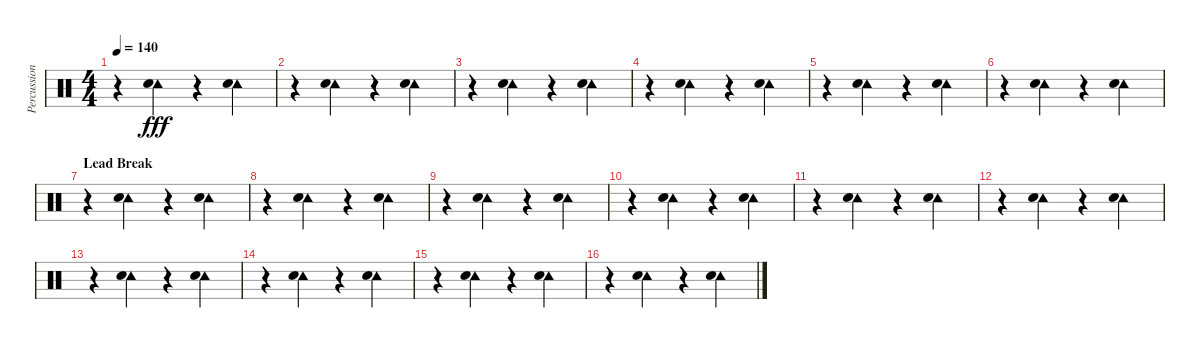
\track ("Percussion" "Percussion") {instrument percussion}
\staff {score}
\articulation defaults
\ts (4 4)
\tempo 140
\clef neutral
\ks c
r.4{dy fff} ("Tambourine (hit)" "Hand Clap (hit)").4 r.4 ("Tambourine (hit)" "Hand Clap (hit)").4 |
r.4 ("Tambourine (hit)" "Hand Clap (hit)").4 r.4 ("Tambourine (hit)" "Hand Clap (hit)").4 |
r.4 ("Tambourine (hit)" "Hand Clap (hit)").4 r.4 ("Tambourine (hit)" "Hand Clap (hit)").4 |
r.4 ("Tambourine (hit)" "Hand Clap (hit)").4 r.4 ("Tambourine (hit)" "Hand Clap (hit)").4 |
r.4 ("Tambourine (hit)" "Hand Clap (hit)").4 r.4 ("Tambourine (hit)" "Hand Clap (hit)").4 |
r.4 ("Tambourine (hit)" "Hand Clap (hit)").4 r.4 ("Tambourine (hit)" "Hand Clap (hit)").4 |
\section ("" "Lead Break")
r.4 ("Tambourine (hit)" "Hand Clap (hit)").4 r.4 ("Tambourine (hit)" "Hand Clap (hit)").4 |
r.4 ("Tambourine (hit)" "Hand Clap (hit)").4 r.4 ("Tambourine (hit)" "Hand Clap (hit)").4 |
r.4 ("Tambourine (hit)" "Hand Clap (hit)").4 r.4 ("Tambourine (hit)" "Hand Clap (hit)").4 |
r.4 ("Tambourine (hit)" "Hand Clap (hit)").4 r.4 ("Tambourine (hit)" "Hand Clap (hit)").4 |
r.4 ("Tambourine (hit)" "Hand Clap (hit)").4 r.4 ("Tambourine (hit)" "Hand Clap (hit)").4 |
r.4 ("Tambourine (hit)" "Hand Clap (hit)").4 r.4 ("Tambourine (hit)" "Hand Clap (hit)").4 |
r.4 ("Tambourine (hit)" "Hand Clap (hit)").4 r.4 ("Tambourine (hit)" "Hand Clap (hit)").4 |
r.4 ("Tambourine (hit)" "Hand Clap (hit)").4 r.4 ("Tambourine (hit)" "Hand Clap (hit)").4 |
r.4 ("Tambourine (hit)" "Hand Clap (hit)").4 r.4 ("Tambourine (hit)" "Hand Clap (hit)").4 |
r.4 ("Tambourine (hit)" "Hand Clap (hit)").4 r.4 ("Tambourine (hit)" "Hand Clap (hit)").4
